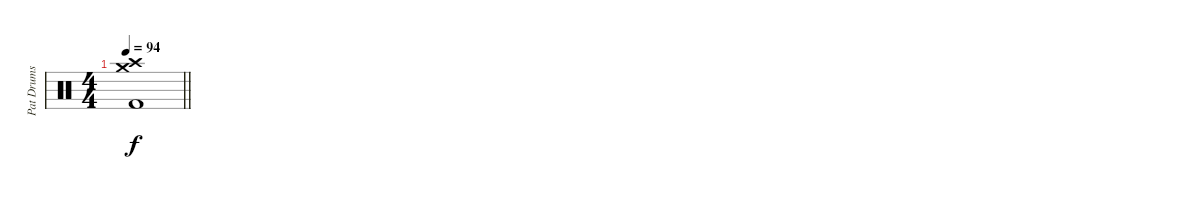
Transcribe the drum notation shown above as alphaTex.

\track ("Pat Drums" "Pat Drums") {instrument percussion}
\staff {score}
\articulation defaults
\ts (4 4)
\tempo 94
\clef neutral
\barLineRight lightlight
\ks c
("Crash medium (hit)" "Kick (hit) 2" "Crash high (hit)").1{dy f}
